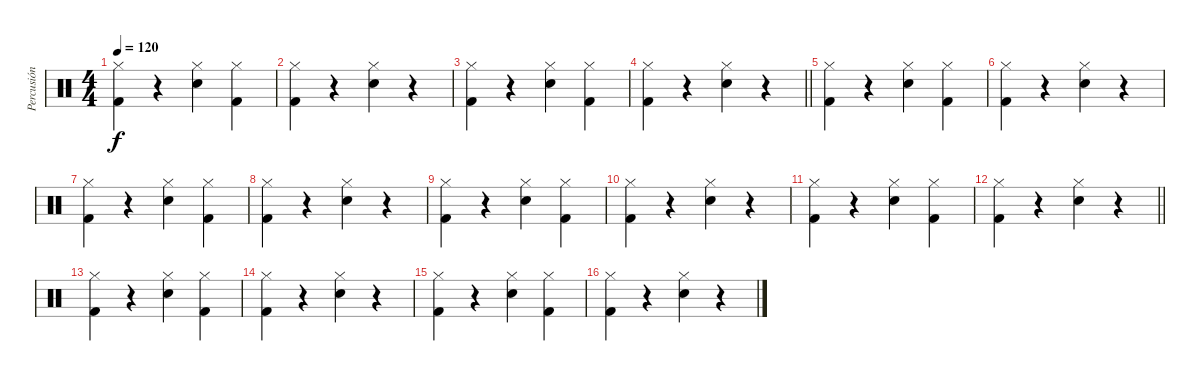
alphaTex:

\track ("Percusión" "Percusión") {instrument percussion}
\staff {score}
\articulation defaults
\ts (4 4)
\tempo 120
\clef neutral
\ks c
("Hi-Hat (closed)" "Kick (hit) 2").4{dy f} r.4 ("Hi-Hat (closed)" "Snare (hit) 2").4 ("Hi-Hat (closed)" "Kick (hit) 2").4 |
("Hi-Hat (closed)" "Kick (hit) 2").4 r.4 ("Hi-Hat (closed)" "Snare (hit) 2").4 r.4 |
("Hi-Hat (closed)" "Kick (hit) 2").4 r.4 ("Hi-Hat (closed)" "Snare (hit) 2").4 ("Hi-Hat (closed)" "Kick (hit) 2").4 |
\barLineRight lightlight
("Hi-Hat (closed)" "Kick (hit) 2").4 r.4 ("Hi-Hat (closed)" "Snare (hit) 2").4 r.4 |
("Hi-Hat (closed)" "Kick (hit) 2").4 r.4 ("Hi-Hat (closed)" "Snare (hit) 2").4 ("Hi-Hat (closed)" "Kick (hit) 2").4 |
("Hi-Hat (closed)" "Kick (hit) 2").4 r.4 ("Hi-Hat (closed)" "Snare (hit) 2").4 r.4 |
("Hi-Hat (closed)" "Kick (hit) 2").4 r.4 ("Hi-Hat (closed)" "Snare (hit) 2").4 ("Hi-Hat (closed)" "Kick (hit) 2").4 |
("Hi-Hat (closed)" "Kick (hit) 2").4 r.4 ("Hi-Hat (closed)" "Snare (hit) 2").4 r.4 |
("Hi-Hat (closed)" "Kick (hit) 2").4 r.4 ("Hi-Hat (closed)" "Snare (hit) 2").4 ("Hi-Hat (closed)" "Kick (hit) 2").4 |
("Hi-Hat (closed)" "Kick (hit) 2").4 r.4 ("Hi-Hat (closed)" "Snare (hit) 2").4 r.4 |
("Hi-Hat (closed)" "Kick (hit) 2").4 r.4 ("Hi-Hat (closed)" "Snare (hit) 2").4 ("Hi-Hat (closed)" "Kick (hit) 2").4 |
\barLineRight lightlight
("Hi-Hat (closed)" "Kick (hit) 2").4 r.4 ("Hi-Hat (closed)" "Snare (hit) 2").4 r.4 |
("Hi-Hat (closed)" "Kick (hit) 2").4 r.4 ("Hi-Hat (closed)" "Snare (hit) 2").4 ("Hi-Hat (closed)" "Kick (hit) 2").4 |
("Hi-Hat (closed)" "Kick (hit) 2").4 r.4 ("Hi-Hat (closed)" "Snare (hit) 2").4 r.4 |
("Hi-Hat (closed)" "Kick (hit) 2").4 r.4 ("Hi-Hat (closed)" "Snare (hit) 2").4 ("Hi-Hat (closed)" "Kick (hit) 2").4 |
("Hi-Hat (closed)" "Kick (hit) 2").4 r.4 ("Hi-Hat (closed)" "Snare (hit) 2").4 r.4
